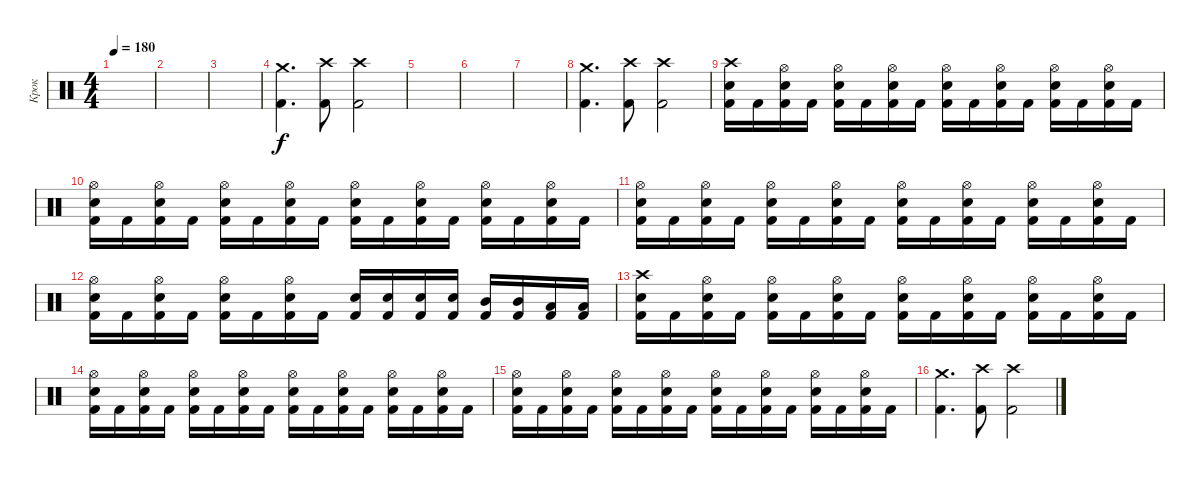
\track ("Крок" "Крок") {instrument percussion}
\staff {score}
\articulation defaults
\ts (4 4)
\tempo 180
\clef neutral
\ks c
|
|
|
("Kick (hit) 2" "Crash medium (hit)").4{d} ("Kick (hit) 2" "Crash high (hit)").8 ("Kick (hit) 2" "Crash high (hit)").2 |
|
|
|
("Kick (hit) 2" "Crash medium (hit)").4{d} ("Kick (hit) 2" "Crash high (hit)").8 ("Kick (hit) 2" "Crash high (hit)").2 |
("Kick (hit) 2" "Electric Snare (hit)" "Crash high (hit)").16 "Kick (hit) 2".16 ("Kick (hit) 2" "Electric Snare (hit)" "Hi-Hat (open)").16 "Kick (hit) 2".16 ("Kick (hit) 2" "Electric Snare (hit)" "Hi-Hat (open)").16 "Kick (hit) 2".16 ("Kick (hit) 2" "Electric Snare (hit)" "Hi-Hat (open)").16 "Kick (hit) 2".16 ("Kick (hit) 2" "Electric Snare (hit)" "Hi-Hat (open)").16 "Kick (hit) 2".16 ("Kick (hit) 2" "Electric Snare (hit)" "Hi-Hat (open)").16 "Kick (hit) 2".16 ("Kick (hit) 2" "Electric Snare (hit)" "Hi-Hat (open)").16 "Kick (hit) 2".16 ("Kick (hit) 2" "Electric Snare (hit)" "Hi-Hat (open)").16 "Kick (hit) 2".16 |
("Kick (hit) 2" "Electric Snare (hit)" "Hi-Hat (open)").16 "Kick (hit) 2".16 ("Kick (hit) 2" "Electric Snare (hit)" "Hi-Hat (open)").16 "Kick (hit) 2".16 ("Kick (hit) 2" "Electric Snare (hit)" "Hi-Hat (open)").16 "Kick (hit) 2".16 ("Kick (hit) 2" "Electric Snare (hit)" "Hi-Hat (open)").16 "Kick (hit) 2".16 ("Kick (hit) 2" "Electric Snare (hit)" "Hi-Hat (open)").16 "Kick (hit) 2".16 ("Kick (hit) 2" "Electric Snare (hit)" "Hi-Hat (open)").16 "Kick (hit) 2".16 ("Kick (hit) 2" "Electric Snare (hit)" "Hi-Hat (open)").16 "Kick (hit) 2".16 ("Kick (hit) 2" "Electric Snare (hit)" "Hi-Hat (open)").16 "Kick (hit) 2".16 |
("Kick (hit) 2" "Electric Snare (hit)" "Hi-Hat (open)").16 "Kick (hit) 2".16 ("Kick (hit) 2" "Electric Snare (hit)" "Hi-Hat (open)").16 "Kick (hit) 2".16 ("Kick (hit) 2" "Electric Snare (hit)" "Hi-Hat (open)").16 "Kick (hit) 2".16 ("Kick (hit) 2" "Electric Snare (hit)" "Hi-Hat (open)").16 "Kick (hit) 2".16 ("Kick (hit) 2" "Electric Snare (hit)" "Hi-Hat (open)").16 "Kick (hit) 2".16 ("Kick (hit) 2" "Electric Snare (hit)" "Hi-Hat (open)").16 "Kick (hit) 2".16 ("Kick (hit) 2" "Electric Snare (hit)" "Hi-Hat (open)").16 "Kick (hit) 2".16 ("Kick (hit) 2" "Electric Snare (hit)" "Hi-Hat (open)").16 "Kick (hit) 2".16 |
("Kick (hit) 2" "Electric Snare (hit)" "Hi-Hat (open)").16 "Kick (hit) 2".16 ("Kick (hit) 2" "Electric Snare (hit)" "Hi-Hat (open)").16 "Kick (hit) 2".16 ("Kick (hit) 2" "Electric Snare (hit)" "Hi-Hat (open)").16 "Kick (hit) 2".16 ("Kick (hit) 2" "Electric Snare (hit)" "Hi-Hat (open)").16 "Kick (hit) 2".16 ("Kick (hit) 2" "Electric Snare (hit)").16 ("Kick (hit) 2" "Electric Snare (hit)").16 ("Kick (hit) 2" "Electric Snare (hit)").16 ("Kick (hit) 2" "Electric Snare (hit)").16 ("Kick (hit) 2" "Mid Tom (hit)").16 ("Kick (hit) 2" "Mid Tom (hit)").16 ("Kick (hit) 2" "Low Tom (hit)").16 ("Kick (hit) 2" "Low Tom (hit)").16 |
("Kick (hit) 2" "Electric Snare (hit)" "Crash high (hit)").16 "Kick (hit) 2".16 ("Kick (hit) 2" "Electric Snare (hit)" "Hi-Hat (open)").16 "Kick (hit) 2".16 ("Kick (hit) 2" "Electric Snare (hit)" "Hi-Hat (open)").16 "Kick (hit) 2".16 ("Kick (hit) 2" "Electric Snare (hit)" "Hi-Hat (open)").16 "Kick (hit) 2".16 ("Kick (hit) 2" "Electric Snare (hit)" "Hi-Hat (open)").16 "Kick (hit) 2".16 ("Kick (hit) 2" "Electric Snare (hit)" "Hi-Hat (open)").16 "Kick (hit) 2".16 ("Kick (hit) 2" "Electric Snare (hit)" "Hi-Hat (open)").16 "Kick (hit) 2".16 ("Kick (hit) 2" "Electric Snare (hit)" "Hi-Hat (open)").16 "Kick (hit) 2".16 |
("Kick (hit) 2" "Electric Snare (hit)" "Hi-Hat (open)").16 "Kick (hit) 2".16 ("Kick (hit) 2" "Electric Snare (hit)" "Hi-Hat (open)").16 "Kick (hit) 2".16 ("Kick (hit) 2" "Electric Snare (hit)" "Hi-Hat (open)").16 "Kick (hit) 2".16 ("Kick (hit) 2" "Electric Snare (hit)" "Hi-Hat (open)").16 "Kick (hit) 2".16 ("Kick (hit) 2" "Electric Snare (hit)" "Hi-Hat (open)").16 "Kick (hit) 2".16 ("Kick (hit) 2" "Electric Snare (hit)" "Hi-Hat (open)").16 "Kick (hit) 2".16 ("Kick (hit) 2" "Electric Snare (hit)" "Hi-Hat (open)").16 "Kick (hit) 2".16 ("Kick (hit) 2" "Electric Snare (hit)" "Hi-Hat (open)").16 "Kick (hit) 2".16 |
("Kick (hit) 2" "Electric Snare (hit)" "Hi-Hat (open)").16 "Kick (hit) 2".16 ("Kick (hit) 2" "Electric Snare (hit)" "Hi-Hat (open)").16 "Kick (hit) 2".16 ("Kick (hit) 2" "Electric Snare (hit)" "Hi-Hat (open)").16 "Kick (hit) 2".16 ("Kick (hit) 2" "Electric Snare (hit)" "Hi-Hat (open)").16 "Kick (hit) 2".16 ("Kick (hit) 2" "Electric Snare (hit)" "Hi-Hat (open)").16 "Kick (hit) 2".16 ("Kick (hit) 2" "Electric Snare (hit)" "Hi-Hat (open)").16 "Kick (hit) 2".16 ("Kick (hit) 2" "Electric Snare (hit)" "Hi-Hat (open)").16 "Kick (hit) 2".16 ("Kick (hit) 2" "Electric Snare (hit)" "Hi-Hat (open)").16 "Kick (hit) 2".16 |
("Kick (hit) 2" "Crash medium (hit)").4{d} ("Kick (hit) 2" "Crash high (hit)").8 ("Kick (hit) 2" "Crash high (hit)").2
